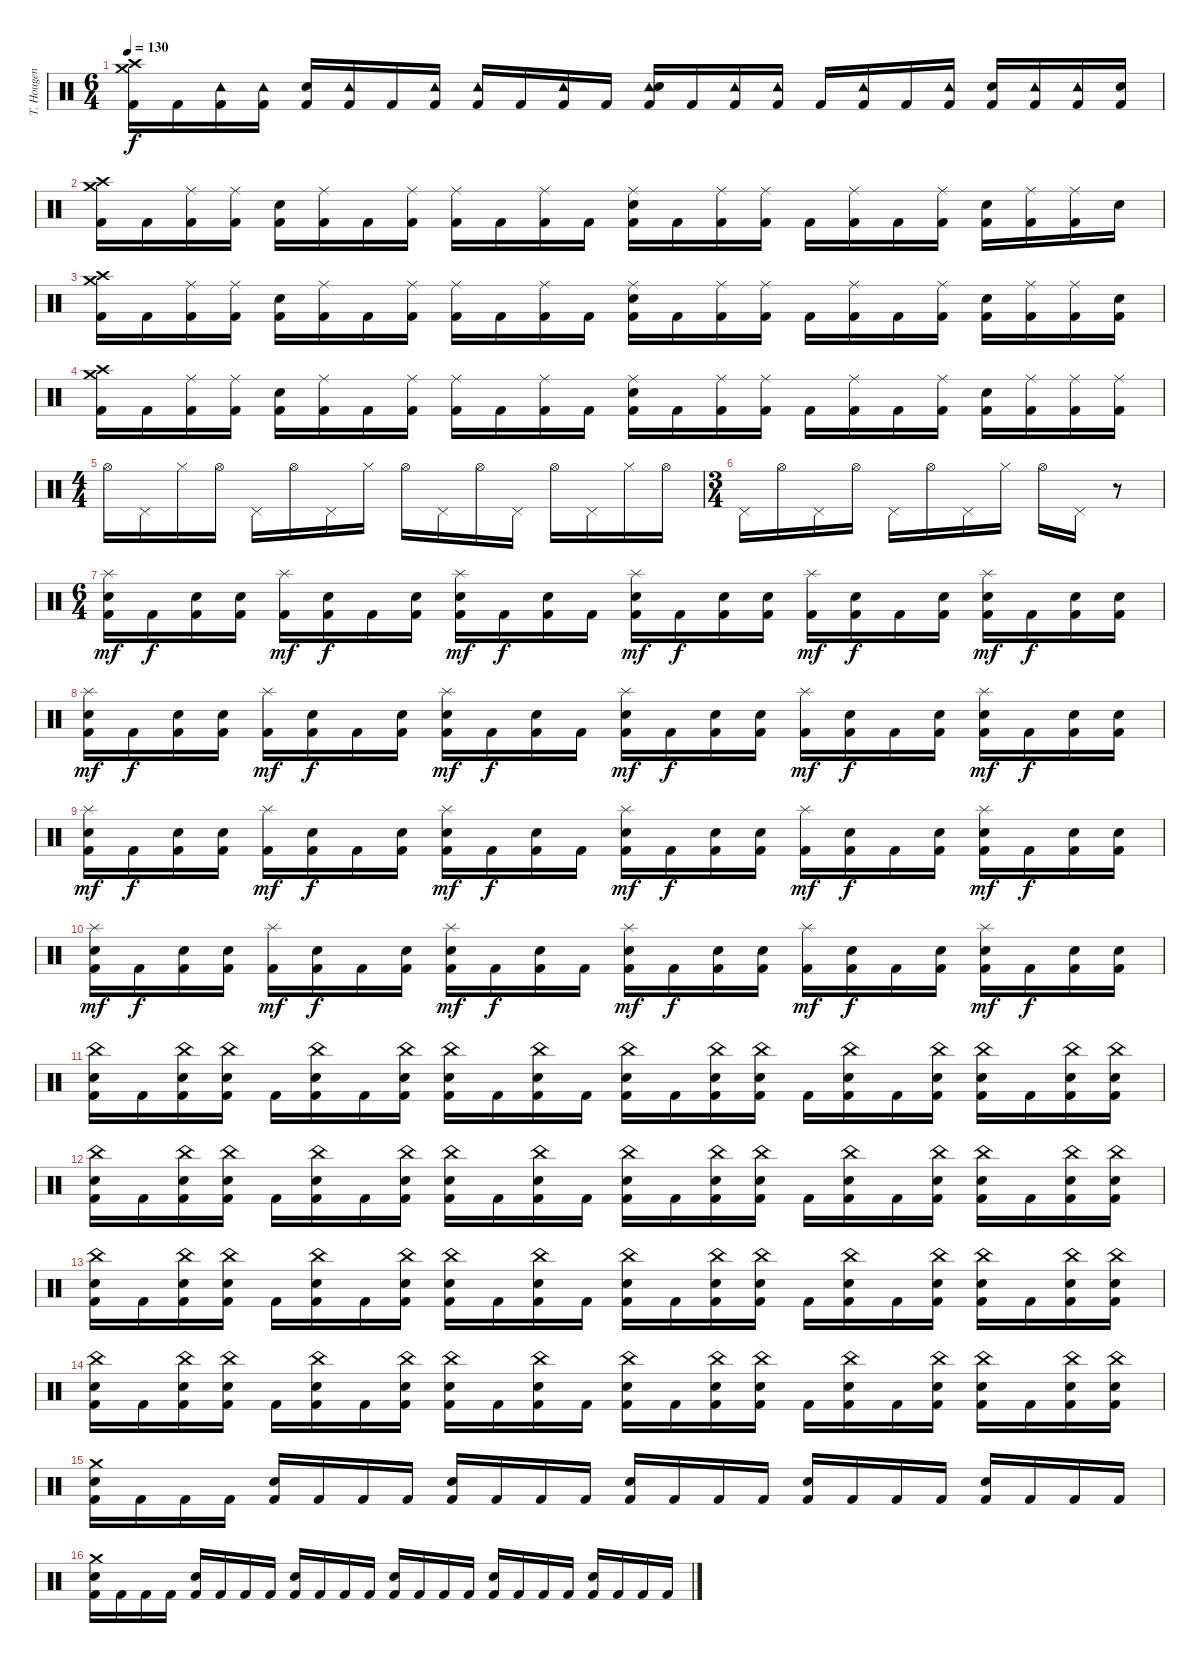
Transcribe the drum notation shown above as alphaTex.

\track ("T. Hougen - Drums" "T. Hougen ") {instrument percussion}
\staff {score}
\articulation defaults
\ts (6 4)
\tempo 130
\clef neutral
\ks c
("Crash medium (hit)" "Crash high (hit)" "Kick (hit) 2").16{dy f} "Kick (hit) 2".16 ("Tambourine (hit)" "Kick (hit) 2").16 ("Tambourine (hit)" "Kick (hit) 2").16 ("Electric Snare (hit)" "Kick (hit) 2").16 ("Tambourine (hit)" "Kick (hit) 2").16 "Kick (hit) 2".16 ("Tambourine (hit)" "Kick (hit) 2").16 ("Tambourine (hit)" "Kick (hit) 2").16 "Kick (hit) 2".16 ("Tambourine (hit)" "Kick (hit) 2").16 "Kick (hit) 2".16 ("Tambourine (hit)" "Electric Snare (hit)" "Kick (hit) 2").16 "Kick (hit) 2".16 ("Tambourine (hit)" "Kick (hit) 2").16 ("Tambourine (hit)" "Kick (hit) 2").16 "Kick (hit) 2".16 ("Tambourine (hit)" "Kick (hit) 2").16 "Kick (hit) 2".16 ("Tambourine (hit)" "Kick (hit) 2").16 ("Electric Snare (hit)" "Kick (hit) 2").16 ("Tambourine (hit)" "Kick (hit) 2").16 ("Tambourine (hit)" "Kick (hit) 2").16 ("Electric Snare (hit)" "Kick (hit) 2").16 |
("Crash medium (hit)" "Crash high (hit)" "Kick (hit) 2").16 "Kick (hit) 2".16 ("Ride (middle)" "Kick (hit) 2").16 ("Ride (middle)" "Kick (hit) 2").16 ("Electric Snare (hit)" "Kick (hit) 2").16 ("Ride (middle)" "Kick (hit) 2").16 "Kick (hit) 2".16 ("Ride (middle)" "Kick (hit) 2").16 ("Ride (middle)" "Kick (hit) 2").16 "Kick (hit) 2".16 ("Ride (middle)" "Kick (hit) 2").16 "Kick (hit) 2".16 ("Ride (middle)" "Electric Snare (hit)" "Kick (hit) 2").16 "Kick (hit) 2".16 ("Ride (middle)" "Kick (hit) 2").16 ("Ride (middle)" "Kick (hit) 2").16 "Kick (hit) 2".16 ("Ride (middle)" "Kick (hit) 2").16 "Kick (hit) 2".16 ("Ride (middle)" "Kick (hit) 2").16 ("Electric Snare (hit)" "Kick (hit) 2").16 ("Ride (middle)" "Kick (hit) 2").16 ("Ride (middle)" "Kick (hit) 2").16 "Electric Snare (hit)".16 |
("Crash medium (hit)" "Crash high (hit)" "Kick (hit) 2").16 "Kick (hit) 2".16 ("Ride (middle)" "Kick (hit) 2").16 ("Ride (middle)" "Kick (hit) 2").16 ("Electric Snare (hit)" "Kick (hit) 2").16 ("Ride (middle)" "Kick (hit) 2").16 "Kick (hit) 2".16 ("Ride (middle)" "Kick (hit) 2").16 ("Ride (middle)" "Kick (hit) 2").16 "Kick (hit) 2".16 ("Ride (middle)" "Kick (hit) 2").16 "Kick (hit) 2".16 ("Ride (middle)" "Electric Snare (hit)" "Kick (hit) 2").16 "Kick (hit) 2".16 ("Ride (middle)" "Kick (hit) 2").16 ("Ride (middle)" "Kick (hit) 2").16 "Kick (hit) 2".16 ("Ride (middle)" "Kick (hit) 2").16 "Kick (hit) 2".16 ("Ride (middle)" "Kick (hit) 2").16 ("Electric Snare (hit)" "Kick (hit) 2").16 ("Ride (middle)" "Kick (hit) 2").16 ("Ride (middle)" "Kick (hit) 2").16 ("Electric Snare (hit)" "Kick (hit) 2").16 |
("Crash medium (hit)" "Crash high (hit)" "Kick (hit) 2").16 "Kick (hit) 2".16 ("Ride (middle)" "Kick (hit) 2").16 ("Ride (middle)" "Kick (hit) 2").16 ("Electric Snare (hit)" "Kick (hit) 2").16 ("Ride (middle)" "Kick (hit) 2").16 "Kick (hit) 2".16 ("Ride (middle)" "Kick (hit) 2").16 ("Ride (middle)" "Kick (hit) 2").16 "Kick (hit) 2".16 ("Ride (middle)" "Kick (hit) 2").16 "Kick (hit) 2".16 ("Ride (middle)" "Electric Snare (hit)" "Kick (hit) 2").16 "Kick (hit) 2".16 ("Ride (middle)" "Kick (hit) 2").16 ("Ride (middle)" "Kick (hit) 2").16 "Kick (hit) 2".16 ("Ride (middle)" "Kick (hit) 2").16 "Kick (hit) 2".16 ("Ride (middle)" "Kick (hit) 2").16 ("Electric Snare (hit)" "Kick (hit) 2").16 ("Ride (middle)" "Kick (hit) 2").16 ("Ride (middle)" "Kick (hit) 2").16 ("Ride (middle)" "Kick (hit) 2").16 |
\ts (4 4)
"Hi-Hat (open)".16 "Pedal Hi-Hat (hit)".16 "Hi-Hat (closed)".16 "Hi-Hat (open)".16 "Pedal Hi-Hat (hit)".16 "Hi-Hat (open)".16 "Pedal Hi-Hat (hit)".16 "Hi-Hat (closed)".16 "Hi-Hat (open)".16 "Pedal Hi-Hat (hit)".16 "Hi-Hat (open)".16 "Pedal Hi-Hat (hit)".16 "Hi-Hat (open)".16 "Pedal Hi-Hat (hit)".16 "Hi-Hat (closed)".16 "Hi-Hat (open)".16 |
\ts (3 4)
"Pedal Hi-Hat (hit)".16 "Hi-Hat (open)".16 "Pedal Hi-Hat (hit)".16 "Hi-Hat (open)".16 "Pedal Hi-Hat (hit)".16 "Hi-Hat (open)".16 "Pedal Hi-Hat (hit)".16 "Hi-Hat (closed)".16 "Hi-Hat (open)".16 "Pedal Hi-Hat (hit)".16 r.8 |
\ts (6 4)
("Splash (hit)" "Electric Snare (hit)" "Kick (hit) 2").16{dy mf volume 16} "Kick (hit) 2".16{dy f} ("Electric Snare (hit)" "Kick (hit) 2").16 ("Electric Snare (hit)" "Kick (hit) 2").16 ("Splash (hit)" "Kick (hit) 2").16{dy mf} ("Electric Snare (hit)" "Kick (hit) 2").16{dy f} "Kick (hit) 2".16 ("Electric Snare (hit)" "Kick (hit) 2").16 ("Splash (hit)" "Electric Snare (hit)" "Kick (hit) 2").16{dy mf} "Kick (hit) 2".16{dy f} ("Electric Snare (hit)" "Kick (hit) 2").16 "Kick (hit) 2".16 ("Splash (hit)" "Electric Snare (hit)" "Kick (hit) 2").16{dy mf} "Kick (hit) 2".16{dy f} ("Electric Snare (hit)" "Kick (hit) 2").16 ("Electric Snare (hit)" "Kick (hit) 2").16 ("Splash (hit)" "Kick (hit) 2").16{dy mf} ("Electric Snare (hit)" "Kick (hit) 2").16{dy f} "Kick (hit) 2".16 ("Electric Snare (hit)" "Kick (hit) 2").16 ("Splash (hit)" "Electric Snare (hit)" "Kick (hit) 2").16{dy mf} "Kick (hit) 2".16{dy f} ("Electric Snare (hit)" "Kick (hit) 2").16 ("Electric Snare (hit)" "Kick (hit) 2").16 |
("Splash (hit)" "Electric Snare (hit)" "Kick (hit) 2").16{dy mf} "Kick (hit) 2".16{dy f} ("Electric Snare (hit)" "Kick (hit) 2").16 ("Electric Snare (hit)" "Kick (hit) 2").16 ("Splash (hit)" "Kick (hit) 2").16{dy mf} ("Electric Snare (hit)" "Kick (hit) 2").16{dy f} "Kick (hit) 2".16 ("Electric Snare (hit)" "Kick (hit) 2").16 ("Splash (hit)" "Electric Snare (hit)" "Kick (hit) 2").16{dy mf} "Kick (hit) 2".16{dy f} ("Electric Snare (hit)" "Kick (hit) 2").16 "Kick (hit) 2".16 ("Splash (hit)" "Electric Snare (hit)" "Kick (hit) 2").16{dy mf} "Kick (hit) 2".16{dy f} ("Electric Snare (hit)" "Kick (hit) 2").16 ("Electric Snare (hit)" "Kick (hit) 2").16 ("Splash (hit)" "Kick (hit) 2").16{dy mf} ("Electric Snare (hit)" "Kick (hit) 2").16{dy f} "Kick (hit) 2".16 ("Electric Snare (hit)" "Kick (hit) 2").16 ("Splash (hit)" "Electric Snare (hit)" "Kick (hit) 2").16{dy mf} "Kick (hit) 2".16{dy f} ("Electric Snare (hit)" "Kick (hit) 2").16 ("Electric Snare (hit)" "Kick (hit) 2").16 |
("Splash (hit)" "Electric Snare (hit)" "Kick (hit) 2").16{dy mf} "Kick (hit) 2".16{dy f} ("Electric Snare (hit)" "Kick (hit) 2").16 ("Electric Snare (hit)" "Kick (hit) 2").16 ("Splash (hit)" "Kick (hit) 2").16{dy mf} ("Electric Snare (hit)" "Kick (hit) 2").16{dy f} "Kick (hit) 2".16 ("Electric Snare (hit)" "Kick (hit) 2").16 ("Splash (hit)" "Electric Snare (hit)" "Kick (hit) 2").16{dy mf} "Kick (hit) 2".16{dy f} ("Electric Snare (hit)" "Kick (hit) 2").16 "Kick (hit) 2".16 ("Splash (hit)" "Electric Snare (hit)" "Kick (hit) 2").16{dy mf} "Kick (hit) 2".16{dy f} ("Electric Snare (hit)" "Kick (hit) 2").16 ("Electric Snare (hit)" "Kick (hit) 2").16 ("Splash (hit)" "Kick (hit) 2").16{dy mf} ("Electric Snare (hit)" "Kick (hit) 2").16{dy f} "Kick (hit) 2".16 ("Electric Snare (hit)" "Kick (hit) 2").16 ("Splash (hit)" "Electric Snare (hit)" "Kick (hit) 2").16{dy mf} "Kick (hit) 2".16{dy f} ("Electric Snare (hit)" "Kick (hit) 2").16 ("Electric Snare (hit)" "Kick (hit) 2").16 |
("Splash (hit)" "Electric Snare (hit)" "Kick (hit) 2").16{dy mf} "Kick (hit) 2".16{dy f} ("Electric Snare (hit)" "Kick (hit) 2").16 ("Electric Snare (hit)" "Kick (hit) 2").16 ("Splash (hit)" "Kick (hit) 2").16{dy mf} ("Electric Snare (hit)" "Kick (hit) 2").16{dy f} "Kick (hit) 2".16 ("Electric Snare (hit)" "Kick (hit) 2").16 ("Splash (hit)" "Electric Snare (hit)" "Kick (hit) 2").16{dy mf} "Kick (hit) 2".16{dy f} ("Electric Snare (hit)" "Kick (hit) 2").16 "Kick (hit) 2".16 ("Splash (hit)" "Electric Snare (hit)" "Kick (hit) 2").16{dy mf} "Kick (hit) 2".16{dy f} ("Electric Snare (hit)" "Kick (hit) 2").16 ("Electric Snare (hit)" "Kick (hit) 2").16 ("Splash (hit)" "Kick (hit) 2").16{dy mf} ("Electric Snare (hit)" "Kick (hit) 2").16{dy f} "Kick (hit) 2".16 ("Electric Snare (hit)" "Kick (hit) 2").16 ("Splash (hit)" "Electric Snare (hit)" "Kick (hit) 2").16{dy mf} "Kick (hit) 2".16{dy f} ("Electric Snare (hit)" "Kick (hit) 2").16 ("Electric Snare (hit)" "Kick (hit) 2").16 |
("China (hit)" "Electric Snare (hit)" "Kick (hit) 2").16 "Kick (hit) 2".16 ("China (hit)" "Electric Snare (hit)" "Kick (hit) 2").16 ("China (hit)" "Electric Snare (hit)" "Kick (hit) 2").16 "Kick (hit) 2".16 ("China (hit)" "Electric Snare (hit)" "Kick (hit) 2").16 "Kick (hit) 2".16 ("China (hit)" "Electric Snare (hit)" "Kick (hit) 2").16 ("China (hit)" "Electric Snare (hit)" "Kick (hit) 2").16 "Kick (hit) 2".16 ("China (hit)" "Electric Snare (hit)" "Kick (hit) 2").16 "Kick (hit) 2".16 ("China (hit)" "Electric Snare (hit)" "Kick (hit) 2").16 "Kick (hit) 2".16 ("China (hit)" "Electric Snare (hit)" "Kick (hit) 2").16 ("China (hit)" "Electric Snare (hit)" "Kick (hit) 2").16 "Kick (hit) 2".16 ("China (hit)" "Electric Snare (hit)" "Kick (hit) 2").16 "Kick (hit) 2".16 ("China (hit)" "Electric Snare (hit)" "Kick (hit) 2").16 ("China (hit)" "Electric Snare (hit)" "Kick (hit) 2").16 "Kick (hit) 2".16 ("China (hit)" "Electric Snare (hit)" "Kick (hit) 2").16 ("China (hit)" "Electric Snare (hit)" "Kick (hit) 2").16 |
("China (hit)" "Electric Snare (hit)" "Kick (hit) 2").16 "Kick (hit) 2".16 ("China (hit)" "Electric Snare (hit)" "Kick (hit) 2").16 ("China (hit)" "Electric Snare (hit)" "Kick (hit) 2").16 "Kick (hit) 2".16 ("China (hit)" "Electric Snare (hit)" "Kick (hit) 2").16 "Kick (hit) 2".16 ("China (hit)" "Electric Snare (hit)" "Kick (hit) 2").16 ("China (hit)" "Electric Snare (hit)" "Kick (hit) 2").16 "Kick (hit) 2".16 ("China (hit)" "Electric Snare (hit)" "Kick (hit) 2").16 "Kick (hit) 2".16 ("China (hit)" "Electric Snare (hit)" "Kick (hit) 2").16 "Kick (hit) 2".16 ("China (hit)" "Electric Snare (hit)" "Kick (hit) 2").16 ("China (hit)" "Electric Snare (hit)" "Kick (hit) 2").16 "Kick (hit) 2".16 ("China (hit)" "Electric Snare (hit)" "Kick (hit) 2").16 "Kick (hit) 2".16 ("China (hit)" "Electric Snare (hit)" "Kick (hit) 2").16 ("China (hit)" "Electric Snare (hit)" "Kick (hit) 2").16 "Kick (hit) 2".16 ("China (hit)" "Electric Snare (hit)" "Kick (hit) 2").16 ("China (hit)" "Electric Snare (hit)" "Kick (hit) 2").16 |
("China (hit)" "Electric Snare (hit)" "Kick (hit) 2").16 "Kick (hit) 2".16 ("China (hit)" "Electric Snare (hit)" "Kick (hit) 2").16 ("China (hit)" "Electric Snare (hit)" "Kick (hit) 2").16 "Kick (hit) 2".16 ("China (hit)" "Electric Snare (hit)" "Kick (hit) 2").16 "Kick (hit) 2".16 ("China (hit)" "Electric Snare (hit)" "Kick (hit) 2").16 ("China (hit)" "Electric Snare (hit)" "Kick (hit) 2").16 "Kick (hit) 2".16 ("China (hit)" "Electric Snare (hit)" "Kick (hit) 2").16 "Kick (hit) 2".16 ("China (hit)" "Electric Snare (hit)" "Kick (hit) 2").16 "Kick (hit) 2".16 ("China (hit)" "Electric Snare (hit)" "Kick (hit) 2").16 ("China (hit)" "Electric Snare (hit)" "Kick (hit) 2").16 "Kick (hit) 2".16 ("China (hit)" "Electric Snare (hit)" "Kick (hit) 2").16 "Kick (hit) 2".16 ("China (hit)" "Electric Snare (hit)" "Kick (hit) 2").16 ("China (hit)" "Electric Snare (hit)" "Kick (hit) 2").16 "Kick (hit) 2".16 ("China (hit)" "Electric Snare (hit)" "Kick (hit) 2").16 ("China (hit)" "Electric Snare (hit)" "Kick (hit) 2").16 |
("China (hit)" "Electric Snare (hit)" "Kick (hit) 2").16 "Kick (hit) 2".16 ("China (hit)" "Electric Snare (hit)" "Kick (hit) 2").16 ("China (hit)" "Electric Snare (hit)" "Kick (hit) 2").16 "Kick (hit) 2".16 ("China (hit)" "Electric Snare (hit)" "Kick (hit) 2").16 "Kick (hit) 2".16 ("China (hit)" "Electric Snare (hit)" "Kick (hit) 2").16 ("China (hit)" "Electric Snare (hit)" "Kick (hit) 2").16 "Kick (hit) 2".16 ("China (hit)" "Electric Snare (hit)" "Kick (hit) 2").16 "Kick (hit) 2".16 ("China (hit)" "Electric Snare (hit)" "Kick (hit) 2").16 "Kick (hit) 2".16 ("China (hit)" "Electric Snare (hit)" "Kick (hit) 2").16 ("China (hit)" "Electric Snare (hit)" "Kick (hit) 2").16 "Kick (hit) 2".16 ("China (hit)" "Electric Snare (hit)" "Kick (hit) 2").16 "Kick (hit) 2".16 ("China (hit)" "Electric Snare (hit)" "Kick (hit) 2").16 ("China (hit)" "Electric Snare (hit)" "Kick (hit) 2").16 "Kick (hit) 2".16 ("China (hit)" "Electric Snare (hit)" "Kick (hit) 2").16 ("China (hit)" "Electric Snare (hit)" "Kick (hit) 2").16 |
("Crash medium (hit)" "Electric Snare (hit)" "Kick (hit) 2").16 "Kick (hit) 2".16 "Kick (hit) 2".16 "Kick (hit) 2".16 ("Electric Snare (hit)" "Kick (hit) 2").16 "Kick (hit) 2".16 "Kick (hit) 2".16 "Kick (hit) 2".16 ("Electric Snare (hit)" "Kick (hit) 2").16 "Kick (hit) 2".16 "Kick (hit) 2".16 "Kick (hit) 2".16 ("Electric Snare (hit)" "Kick (hit) 2").16 "Kick (hit) 2".16 "Kick (hit) 2".16 "Kick (hit) 2".16 ("Electric Snare (hit)" "Kick (hit) 2").16 "Kick (hit) 2".16 "Kick (hit) 2".16 "Kick (hit) 2".16 ("Electric Snare (hit)" "Kick (hit) 2").16 "Kick (hit) 2".16 "Kick (hit) 2".16 "Kick (hit) 2".16 |
("Crash medium (hit)" "Electric Snare (hit)" "Kick (hit) 2").16 "Kick (hit) 2".16 "Kick (hit) 2".16 "Kick (hit) 2".16 ("Electric Snare (hit)" "Kick (hit) 2").16 "Kick (hit) 2".16 "Kick (hit) 2".16 "Kick (hit) 2".16 ("Electric Snare (hit)" "Kick (hit) 2").16 "Kick (hit) 2".16 "Kick (hit) 2".16 "Kick (hit) 2".16 ("Electric Snare (hit)" "Kick (hit) 2").16 "Kick (hit) 2".16 "Kick (hit) 2".16 "Kick (hit) 2".16 ("Electric Snare (hit)" "Kick (hit) 2").16 "Kick (hit) 2".16 "Kick (hit) 2".16 "Kick (hit) 2".16 ("Electric Snare (hit)" "Kick (hit) 2").16 "Kick (hit) 2".16 "Kick (hit) 2".16 "Kick (hit) 2".16
